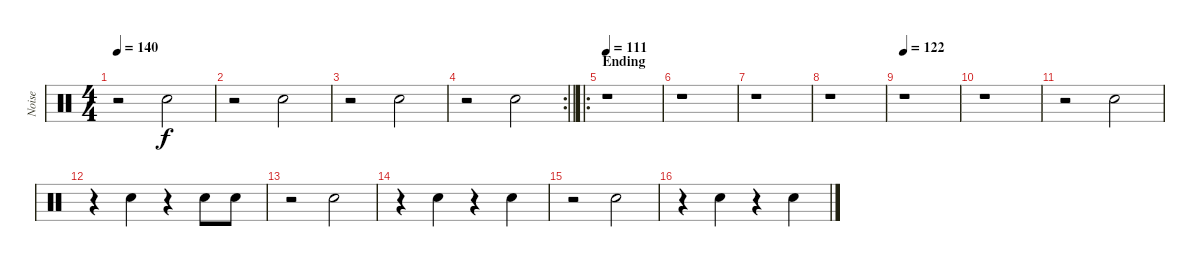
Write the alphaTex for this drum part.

\track ("Noise" "Noise") {instrument percussion}
\staff {score}
\articulation defaults
\ts (4 4)
\tempo 140
\clef neutral
\ks c
r.2{dy f} "Snare (hit) 2".2 |
r.2 "Snare (hit) 2".2 |
r.2 "Snare (hit) 2".2 |
\rc 2
\barLineRight lightlight
r.2 "Snare (hit) 2".2 |
\ro
\section ("" "Ending")
\tempo 111
r.1{volume 13} |
r.1 |
r.1 |
r.1 |
\tempo 122
r.1 |
r.1 |
r.2 "Snare (hit) 2".2 |
r.4 "Snare (hit) 2".4 r.4 "Snare (hit) 2".8 "Snare (hit) 2".8 |
r.2 "Snare (hit) 2".2 |
r.4 "Snare (hit) 2".4 r.4 "Snare (hit) 2".4 |
r.2 "Snare (hit) 2".2 |
r.4 "Snare (hit) 2".4 r.4 "Snare (hit) 2".4
